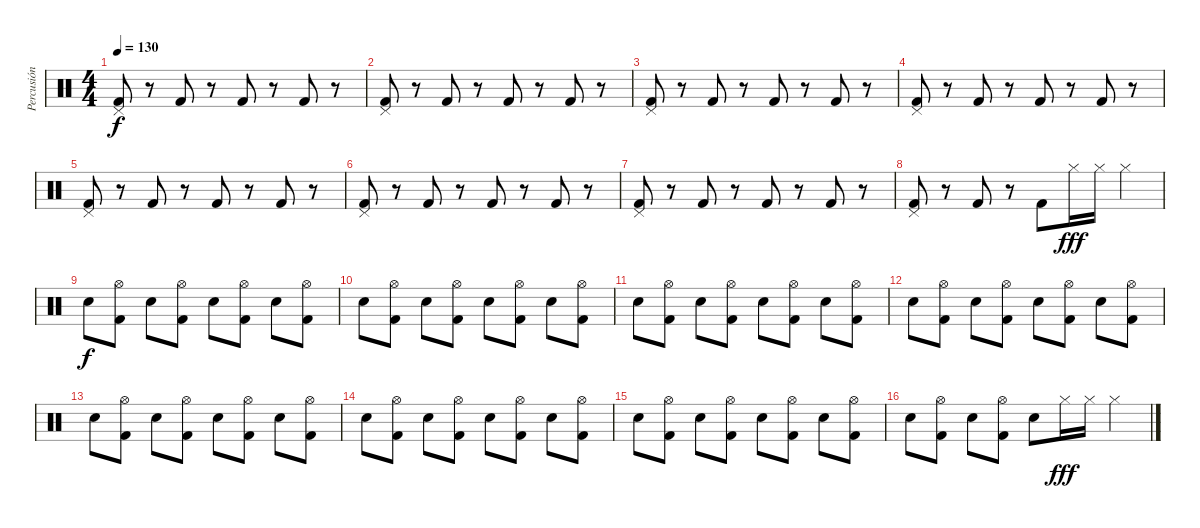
\track ("Percusión" "Percusión") {instrument percussion}
\staff {score}
\articulation defaults
\ts (4 4)
\tempo 130
\clef neutral
\ks c
("Kick (hit) 2" "Pedal Hi-Hat (hit)").8{dy f} r.8 "Kick (hit) 2".8 r.8 "Kick (hit) 2".8 r.8 "Kick (hit) 2".8 r.8 |
("Kick (hit) 2" "Pedal Hi-Hat (hit)").8 r.8 "Kick (hit) 2".8 r.8 "Kick (hit) 2".8 r.8 "Kick (hit) 2".8 r.8 |
("Kick (hit) 2" "Pedal Hi-Hat (hit)").8 r.8 "Kick (hit) 2".8 r.8 "Kick (hit) 2".8 r.8 "Kick (hit) 2".8 r.8 |
("Kick (hit) 2" "Pedal Hi-Hat (hit)").8 r.8 "Kick (hit) 2".8 r.8 "Kick (hit) 2".8 r.8 "Kick (hit) 2".8 r.8 |
("Kick (hit) 2" "Pedal Hi-Hat (hit)").8 r.8 "Kick (hit) 2".8 r.8 "Kick (hit) 2".8 r.8 "Kick (hit) 2".8 r.8 |
("Kick (hit) 2" "Pedal Hi-Hat (hit)").8 r.8 "Kick (hit) 2".8 r.8 "Kick (hit) 2".8 r.8 "Kick (hit) 2".8 r.8 |
("Kick (hit) 2" "Pedal Hi-Hat (hit)").8 r.8 "Kick (hit) 2".8 r.8 "Kick (hit) 2".8 r.8 "Kick (hit) 2".8 r.8 |
("Kick (hit) 2" "Pedal Hi-Hat (hit)").8 r.8 "Kick (hit) 2".8 r.8 "Kick (hit) 2".8 "Hi-Hat (closed)".16{dy fff} "Hi-Hat (closed)".16 "Hi-Hat (closed)".4 |
"Snare (hit) 2".8{dy f} ("Hi-Hat (open)" "Kick (hit) 2").8 "Snare (hit) 2".8 ("Hi-Hat (open)" "Kick (hit) 2").8 "Snare (hit) 2".8 ("Hi-Hat (open)" "Kick (hit) 2").8 "Snare (hit) 2".8 ("Hi-Hat (open)" "Kick (hit) 2").8 |
"Snare (hit) 2".8 ("Hi-Hat (open)" "Kick (hit) 2").8 "Snare (hit) 2".8 ("Hi-Hat (open)" "Kick (hit) 2").8 "Snare (hit) 2".8 ("Hi-Hat (open)" "Kick (hit) 2").8 "Snare (hit) 2".8 ("Hi-Hat (open)" "Kick (hit) 2").8 |
"Snare (hit) 2".8 ("Hi-Hat (open)" "Kick (hit) 2").8 "Snare (hit) 2".8 ("Hi-Hat (open)" "Kick (hit) 2").8 "Snare (hit) 2".8 ("Hi-Hat (open)" "Kick (hit) 2").8 "Snare (hit) 2".8 ("Hi-Hat (open)" "Kick (hit) 2").8 |
"Snare (hit) 2".8 ("Hi-Hat (open)" "Kick (hit) 2").8 "Snare (hit) 2".8 ("Hi-Hat (open)" "Kick (hit) 2").8 "Snare (hit) 2".8 ("Hi-Hat (open)" "Kick (hit) 2").8 "Snare (hit) 2".8 ("Hi-Hat (open)" "Kick (hit) 2").8 |
"Snare (hit) 2".8 ("Hi-Hat (open)" "Kick (hit) 2").8 "Snare (hit) 2".8 ("Hi-Hat (open)" "Kick (hit) 2").8 "Snare (hit) 2".8 ("Hi-Hat (open)" "Kick (hit) 2").8 "Snare (hit) 2".8 ("Hi-Hat (open)" "Kick (hit) 2").8 |
"Snare (hit) 2".8 ("Hi-Hat (open)" "Kick (hit) 2").8 "Snare (hit) 2".8 ("Hi-Hat (open)" "Kick (hit) 2").8 "Snare (hit) 2".8 ("Hi-Hat (open)" "Kick (hit) 2").8 "Snare (hit) 2".8 ("Hi-Hat (open)" "Kick (hit) 2").8 |
"Snare (hit) 2".8 ("Hi-Hat (open)" "Kick (hit) 2").8 "Snare (hit) 2".8 ("Hi-Hat (open)" "Kick (hit) 2").8 "Snare (hit) 2".8 ("Hi-Hat (open)" "Kick (hit) 2").8 "Snare (hit) 2".8 ("Hi-Hat (open)" "Kick (hit) 2").8 |
"Snare (hit) 2".8 ("Hi-Hat (open)" "Kick (hit) 2").8 "Snare (hit) 2".8 ("Hi-Hat (open)" "Kick (hit) 2").8 "Snare (hit) 2".8 "Hi-Hat (closed)".16{dy fff} "Hi-Hat (closed)".16 "Hi-Hat (closed)".4
